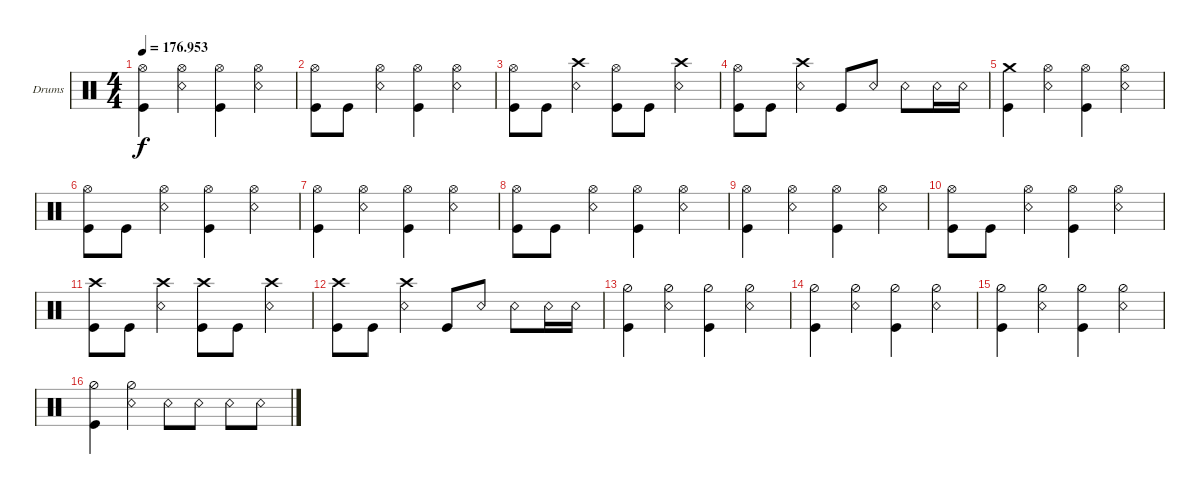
\defaultSystemsLayout 4
\bracketExtendMode groupsimilarinstruments
\firstSystemTrackNameOrientation horizontal
\otherSystemsTrackNameOrientation horizontal
\track ("Christopher" "Drums") {instrument percussion}
\staff {score}
\articulation defaults
\ts (4 4)
\tempo
176.953
\accidentals auto
\clef neutral
\ottava regular
\simile none
\ks c
("Kick (hit)" "Hi-Hat (open)").4{dy f} ("Snare (rim shot)" "Hi-Hat (open)").4 ("Hi-Hat (open)" "Kick (hit)").4 ("Snare (rim shot)" "Hi-Hat (open)").4 |
("Kick (hit)" "Hi-Hat (open)").8 "Kick (hit)".8 ("Snare (rim shot)" "Hi-Hat (open)").4 ("Kick (hit)" "Hi-Hat (open)").4 ("Snare (rim shot)" "Hi-Hat (open)").4 |
("Kick (hit)" "Hi-Hat (open)").8 "Kick (hit)".8 ("Snare (rim shot)" "Crash high (hit)").4 ("Kick (hit)" "Hi-Hat (open)").8 "Kick (hit)".8 ("Snare (rim shot)" "Crash high (hit)").4 |
("Kick (hit)" "Hi-Hat (open)").8 "Kick (hit)".8 ("Snare (rim shot)" "Crash high (hit)").4 "Kick (hit)".8 "Snare (rim shot)".8 "Snare (rim shot)".8 "Snare (rim shot)".16 "Snare (rim shot)".16 |
("Crash medium (hit)" "Kick (hit)").4 ("Snare (rim shot)" "Hi-Hat (open)").4 ("Hi-Hat (open)" "Kick (hit)").4 ("Snare (rim shot)" "Hi-Hat (open)").4 |
("Kick (hit)" "Hi-Hat (open)").8 "Kick (hit)".8 ("Snare (rim shot)" "Hi-Hat (open)").4 ("Kick (hit)" "Hi-Hat (open)").4 ("Snare (rim shot)" "Hi-Hat (open)").4 |
("Kick (hit)" "Hi-Hat (open)").4 ("Snare (rim shot)" "Hi-Hat (open)").4 ("Hi-Hat (open)" "Kick (hit)").4 ("Snare (rim shot)" "Hi-Hat (open)").4 |
("Kick (hit)" "Hi-Hat (open)").8 "Kick (hit)".8 ("Snare (rim shot)" "Hi-Hat (open)").4 ("Kick (hit)" "Hi-Hat (open)").4 ("Snare (rim shot)" "Hi-Hat (open)").4 |
("Kick (hit)" "Hi-Hat (open)").4 ("Snare (rim shot)" "Hi-Hat (open)").4 ("Hi-Hat (open)" "Kick (hit)").4 ("Snare (rim shot)" "Hi-Hat (open)").4 |
("Kick (hit)" "Hi-Hat (open)").8 "Kick (hit)".8 ("Snare (rim shot)" "Hi-Hat (open)").4 ("Kick (hit)" "Hi-Hat (open)").4 ("Snare (rim shot)" "Hi-Hat (open)").4 |
("Kick (hit)" "Crash high (hit)").8 "Kick (hit)".8 ("Snare (rim shot)" "Crash high (hit)").4 ("Kick (hit)" "Crash high (hit)").8 "Kick (hit)".8 ("Snare (rim shot)" "Crash high (hit)").4 |
("Kick (hit)" "Crash high (hit)").8 "Kick (hit)".8 ("Snare (rim shot)" "Crash high (hit)").4 "Kick (hit)".8 "Snare (rim shot)".8 "Snare (rim shot)".8 "Snare (rim shot)".16 "Snare (rim shot)".16 |
("Kick (hit)" "Hi-Hat (half)").4 ("Snare (rim shot)" "Hi-Hat (half)").4 ("Kick (hit)" "Hi-Hat (half)").4 ("Snare (rim shot)" "Hi-Hat (half)").4 |
("Kick (hit)" "Hi-Hat (half)").4 ("Snare (rim shot)" "Hi-Hat (half)").4 ("Kick (hit)" "Hi-Hat (half)").4 ("Snare (rim shot)" "Hi-Hat (half)").4 |
("Kick (hit)" "Hi-Hat (half)").4 ("Snare (rim shot)" "Hi-Hat (half)").4 ("Kick (hit)" "Hi-Hat (half)").4 ("Snare (rim shot)" "Hi-Hat (half)").4 |
("Kick (hit)" "Hi-Hat (half)").4 ("Snare (rim shot)" "Hi-Hat (half)").4 "Snare (rim shot)".8 "Snare (rim shot)".8 "Snare (rim shot)".8 "Snare (rim shot)".8
